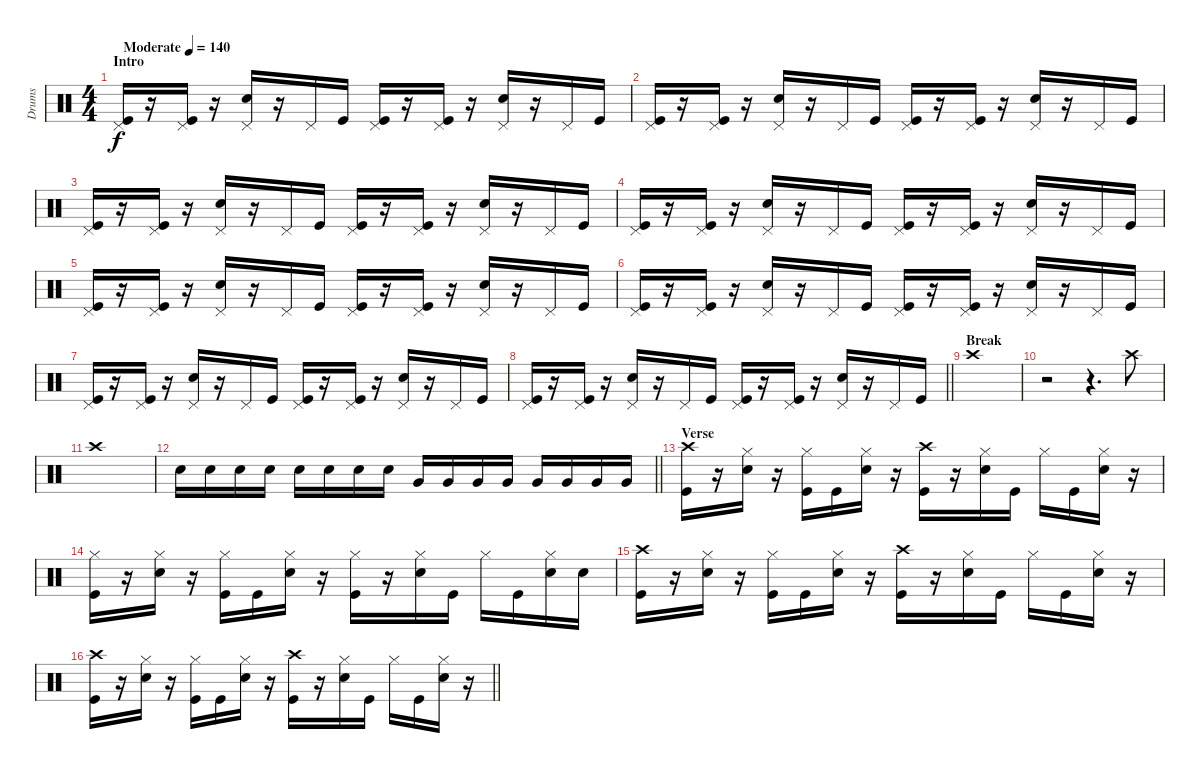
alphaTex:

\track ("Drums" "Drums") {instrument percussion}
\staff {score}
\articulation defaults
\ts (4 4)
\section ("" "Intro")
\tempo (140 "Moderate")
\clef neutral
\ks c
("Pedal Hi-Hat (hit)" "Kick (hit)").16{dy f} r.16 ("Pedal Hi-Hat (hit)" "Kick (hit)").16 r.16 ("Pedal Hi-Hat (hit)" "Snare (hit) 2").16 r.16 "Pedal Hi-Hat (hit)".16 "Kick (hit)".16 ("Pedal Hi-Hat (hit)" "Kick (hit)").16 r.16 ("Pedal Hi-Hat (hit)" "Kick (hit)").16 r.16 ("Pedal Hi-Hat (hit)" "Snare (hit) 2").16 r.16 "Pedal Hi-Hat (hit)".16 "Kick (hit)".16 |
("Pedal Hi-Hat (hit)" "Kick (hit)").16 r.16 ("Pedal Hi-Hat (hit)" "Kick (hit)").16 r.16 ("Pedal Hi-Hat (hit)" "Snare (hit) 2").16 r.16 "Pedal Hi-Hat (hit)".16 "Kick (hit)".16 ("Pedal Hi-Hat (hit)" "Kick (hit)").16 r.16 ("Pedal Hi-Hat (hit)" "Kick (hit)").16 r.16 ("Pedal Hi-Hat (hit)" "Snare (hit) 2").16 r.16 "Pedal Hi-Hat (hit)".16 "Kick (hit)".16 |
("Pedal Hi-Hat (hit)" "Kick (hit)").16 r.16 ("Pedal Hi-Hat (hit)" "Kick (hit)").16 r.16 ("Pedal Hi-Hat (hit)" "Snare (hit) 2").16 r.16 "Pedal Hi-Hat (hit)".16 "Kick (hit)".16 ("Pedal Hi-Hat (hit)" "Kick (hit)").16 r.16 ("Pedal Hi-Hat (hit)" "Kick (hit)").16 r.16 ("Pedal Hi-Hat (hit)" "Snare (hit) 2").16 r.16 "Pedal Hi-Hat (hit)".16 "Kick (hit)".16 |
("Pedal Hi-Hat (hit)" "Kick (hit)").16 r.16 ("Pedal Hi-Hat (hit)" "Kick (hit)").16 r.16 ("Pedal Hi-Hat (hit)" "Snare (hit) 2").16 r.16 "Pedal Hi-Hat (hit)".16 "Kick (hit)".16 ("Pedal Hi-Hat (hit)" "Kick (hit)").16 r.16 ("Pedal Hi-Hat (hit)" "Kick (hit)").16 r.16 ("Pedal Hi-Hat (hit)" "Snare (hit) 2").16 r.16 "Pedal Hi-Hat (hit)".16 "Kick (hit)".16 |
("Pedal Hi-Hat (hit)" "Kick (hit)").16 r.16 ("Pedal Hi-Hat (hit)" "Kick (hit)").16 r.16 ("Pedal Hi-Hat (hit)" "Snare (hit) 2").16 r.16 "Pedal Hi-Hat (hit)".16 "Kick (hit)".16 ("Pedal Hi-Hat (hit)" "Kick (hit)").16 r.16 ("Pedal Hi-Hat (hit)" "Kick (hit)").16 r.16 ("Pedal Hi-Hat (hit)" "Snare (hit) 2").16 r.16 "Pedal Hi-Hat (hit)".16 "Kick (hit)".16 |
("Pedal Hi-Hat (hit)" "Kick (hit)").16 r.16 ("Pedal Hi-Hat (hit)" "Kick (hit)").16 r.16 ("Pedal Hi-Hat (hit)" "Snare (hit) 2").16 r.16 "Pedal Hi-Hat (hit)".16 "Kick (hit)".16 ("Pedal Hi-Hat (hit)" "Kick (hit)").16 r.16 ("Pedal Hi-Hat (hit)" "Kick (hit)").16 r.16 ("Pedal Hi-Hat (hit)" "Snare (hit) 2").16 r.16 "Pedal Hi-Hat (hit)".16 "Kick (hit)".16 |
("Pedal Hi-Hat (hit)" "Kick (hit)").16 r.16 ("Pedal Hi-Hat (hit)" "Kick (hit)").16 r.16 ("Pedal Hi-Hat (hit)" "Snare (hit) 2").16 r.16 "Pedal Hi-Hat (hit)".16 "Kick (hit)".16 ("Pedal Hi-Hat (hit)" "Kick (hit)").16 r.16 ("Pedal Hi-Hat (hit)" "Kick (hit)").16 r.16 ("Pedal Hi-Hat (hit)" "Snare (hit) 2").16 r.16 "Pedal Hi-Hat (hit)".16 "Kick (hit)".16 |
\barLineRight lightlight
("Pedal Hi-Hat (hit)" "Kick (hit)").16 r.16 ("Pedal Hi-Hat (hit)" "Kick (hit)").16 r.16 ("Pedal Hi-Hat (hit)" "Snare (hit) 2").16 r.16 "Pedal Hi-Hat (hit)".16 "Kick (hit)".16 ("Pedal Hi-Hat (hit)" "Kick (hit)").16 r.16 ("Pedal Hi-Hat (hit)" "Kick (hit)").16 r.16 ("Pedal Hi-Hat (hit)" "Snare (hit) 2").16 r.16 "Pedal Hi-Hat (hit)".16 "Kick (hit)".16 |
\section ("" "Break")
"Crash high (hit)".1 |
r.2 r.4{d} "Crash high (hit)".8 |
"Crash high (hit)".1 |
\barLineRight lightlight "Snare (hit) 2".16 "Snare (hit) 2".16 "Snare (hit) 2".16 "Snare (hit) 2".16 "Snare (hit) 2".16 "Snare (hit) 2".16 "Snare (hit) 2".16 "Snare (hit) 2".16 "Very Low Tom (hit)".16 "Very Low Tom (hit)".16 "Very Low Tom (hit)".16 "Very Low Tom (hit)".16 "Very Low Tom (hit)".16 "Very Low Tom (hit)".16 "Very Low Tom (hit)".16 "Very Low Tom (hit)".16
|
\section ("" "Verse")
("Crash high (hit)" "Kick (hit)").16 r.16 ("Hi-Hat (closed)" "Snare (hit) 2").16 r.16 ("Hi-Hat (closed)" "Kick (hit)").16 "Kick (hit)".16 ("Hi-Hat (closed)" "Snare (hit) 2").16 r.16 ("Crash high (hit)" "Kick (hit)").16 r.16 ("Hi-Hat (closed)" "Snare (hit) 2").16 "Kick (hit)".16 "Hi-Hat (closed)".16 "Kick (hit)".16 ("Hi-Hat (closed)" "Snare (hit) 2").16 r.16 |
("Hi-Hat (closed)" "Kick (hit)").16 r.16 ("Hi-Hat (closed)" "Snare (hit) 2").16 r.16 ("Hi-Hat (closed)" "Kick (hit)").16 "Kick (hit)".16 ("Hi-Hat (closed)" "Snare (hit) 2").16 r.16 ("Hi-Hat (closed)" "Kick (hit)").16 r.16 ("Hi-Hat (closed)" "Snare (hit) 2").16 "Kick (hit)".16 "Hi-Hat (closed)".16 "Kick (hit)".16 ("Hi-Hat (closed)" "Snare (hit) 2").16 "Snare (hit) 2".16 |
("Crash high (hit)" "Kick (hit)").16 r.16 ("Hi-Hat (closed)" "Snare (hit) 2").16 r.16 ("Hi-Hat (closed)" "Kick (hit)").16 "Kick (hit)".16 ("Hi-Hat (closed)" "Snare (hit) 2").16 r.16 ("Crash high (hit)" "Kick (hit)").16 r.16 ("Hi-Hat (closed)" "Snare (hit) 2").16 "Kick (hit)".16 "Hi-Hat (closed)".16 "Kick (hit)".16 ("Hi-Hat (closed)" "Snare (hit) 2").16 r.16 |
\barLineRight lightlight
("Crash high (hit)" "Kick (hit)").16 r.16 ("Hi-Hat (closed)" "Snare (hit) 2").16 r.16 ("Hi-Hat (closed)" "Kick (hit)").16 "Kick (hit)".16 ("Hi-Hat (closed)" "Snare (hit) 2").16 r.16 ("Crash high (hit)" "Kick (hit)").16 r.16 ("Hi-Hat (closed)" "Snare (hit) 2").16 "Kick (hit)".16 "Hi-Hat (closed)".16 "Kick (hit)".16 ("Hi-Hat (closed)" "Snare (hit) 2").16 r.16
